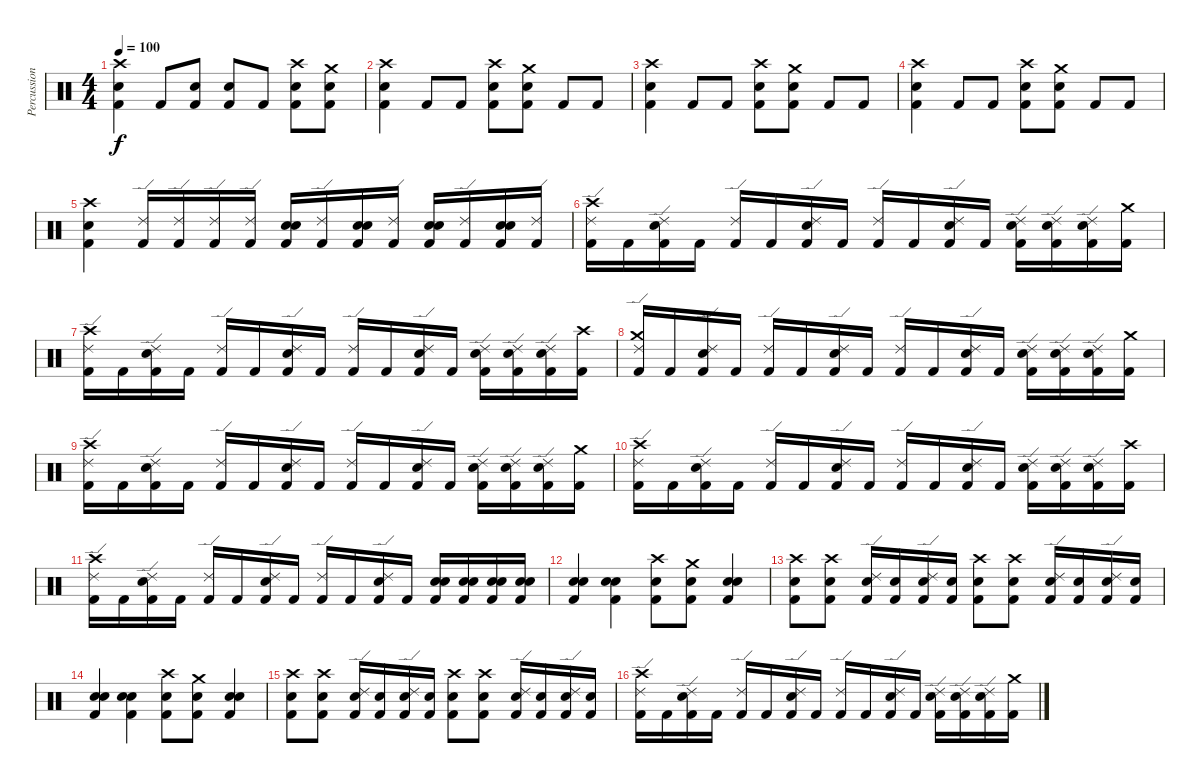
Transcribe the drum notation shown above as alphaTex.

\track ("Percussion" "Percussion") {instrument percussion}
\staff {score}
\articulation defaults
\ts (4 4)
\tempo 100
\clef neutral
\ks c
("Crash high (hit)" "Snare (hit) 2" "Kick (hit) 2").4{dy f} "Kick (hit) 2".8 ("Snare (hit) 2" "Kick (hit) 2").8 ("Snare (hit) 2" "Kick (hit) 2").8 "Kick (hit) 2".8 ("Crash high (hit)" "Snare (hit) 2" "Kick (hit) 2").8 ("Crash medium (hit)" "Snare (hit) 2" "Kick (hit) 2").8 |
("Crash high (hit)" "Snare (hit) 2" "Kick (hit) 2").4 "Kick (hit) 2".8 "Kick (hit) 2".8 ("Crash high (hit)" "Snare (hit) 2" "Kick (hit) 2").8 ("Crash medium (hit)" "Snare (hit) 2" "Kick (hit) 2").8 "Kick (hit) 2".8 "Kick (hit) 2".8 |
("Crash high (hit)" "Snare (hit) 2" "Kick (hit) 2").4 "Kick (hit) 2".8 "Kick (hit) 2".8 ("Crash high (hit)" "Snare (hit) 2" "Kick (hit) 2").8 ("Crash medium (hit)" "Snare (hit) 2" "Kick (hit) 2").8 "Kick (hit) 2".8 "Kick (hit) 2".8 |
("Crash high (hit)" "Snare (hit) 2" "Kick (hit) 2").4 "Kick (hit) 2".8 "Kick (hit) 2".8 ("Crash high (hit)" "Snare (hit) 2" "Kick (hit) 2").8 ("Crash medium (hit)" "Snare (hit) 2" "Kick (hit) 2").8 "Kick (hit) 2".8 "Kick (hit) 2".8 |
("Crash high (hit)" "Snare (hit) 2" "Kick (hit) 2").4 ("Ride (edge) 2" "Kick (hit) 2").16 ("Ride (edge) 2" "Kick (hit) 2").16 ("Ride (edge) 2" "Kick (hit) 2").16 ("Ride (edge) 2" "Kick (hit) 2").16 ("Snare (hit) 2" "Snare (hit) 2" "Kick (hit) 2").16 ("Ride (edge) 2" "Kick (hit) 2").16 ("Snare (hit) 2" "Snare (hit) 2" "Kick (hit) 2").16 ("Ride (edge) 2" "Kick (hit) 2").16 ("Snare (hit) 2" "Snare (hit) 2" "Kick (hit) 2").16 ("Ride (edge) 2" "Kick (hit) 2").16 ("Snare (hit) 2" "Snare (hit) 2" "Kick (hit) 2").16 ("Ride (edge) 2" "Kick (hit) 2").16 |
("Ride (edge) 2" "Crash high (hit)" "Kick (hit) 2").16 "Kick (hit) 2".16 ("Ride (edge) 2" "Snare (hit) 2" "Kick (hit) 2").16 "Kick (hit) 2".16 ("Ride (edge) 2" "Kick (hit) 2").16 "Kick (hit) 2".16 ("Ride (edge) 2" "Snare (hit) 2" "Kick (hit) 2").16 "Kick (hit) 2".16 ("Ride (edge) 2" "Kick (hit) 2").16 "Kick (hit) 2".16 ("Ride (edge) 2" "Snare (hit) 2" "Kick (hit) 2").16 "Kick (hit) 2".16 ("Ride (edge) 2" "Snare (hit) 2" "Kick (hit) 2").16 ("Ride (edge) 2" "Snare (hit) 2" "Kick (hit) 2").16 ("Ride (edge) 2" "Snare (hit) 2" "Kick (hit) 2").16 ("Crash medium (hit)" "Kick (hit) 2").16 |
("Ride (edge) 2" "Crash high (hit)" "Kick (hit) 2").16 "Kick (hit) 2".16 ("Ride (edge) 2" "Snare (hit) 2" "Kick (hit) 2").16 "Kick (hit) 2".16 ("Ride (edge) 2" "Kick (hit) 2").16 "Kick (hit) 2".16 ("Ride (edge) 2" "Snare (hit) 2" "Kick (hit) 2").16 "Kick (hit) 2".16 ("Ride (edge) 2" "Kick (hit) 2").16 "Kick (hit) 2".16 ("Ride (edge) 2" "Snare (hit) 2" "Kick (hit) 2").16 "Kick (hit) 2".16 ("Ride (edge) 2" "Snare (hit) 2" "Kick (hit) 2").16 ("Ride (edge) 2" "Snare (hit) 2" "Kick (hit) 2").16 ("Ride (edge) 2" "Snare (hit) 2" "Kick (hit) 2").16 ("Crash high (hit)" "Kick (hit) 2").16 |
("Ride (edge) 2" "Crash medium (hit)" "Kick (hit) 2").16 "Kick (hit) 2".16 ("Ride (edge) 2" "Snare (hit) 2" "Kick (hit) 2").16 "Kick (hit) 2".16 ("Ride (edge) 2" "Kick (hit) 2").16 "Kick (hit) 2".16 ("Ride (edge) 2" "Snare (hit) 2" "Kick (hit) 2").16 "Kick (hit) 2".16 ("Ride (edge) 2" "Kick (hit) 2").16 "Kick (hit) 2".16 ("Ride (edge) 2" "Snare (hit) 2" "Kick (hit) 2").16 "Kick (hit) 2".16 ("Ride (edge) 2" "Snare (hit) 2" "Kick (hit) 2").16 ("Ride (edge) 2" "Snare (hit) 2" "Kick (hit) 2").16 ("Ride (edge) 2" "Snare (hit) 2" "Kick (hit) 2").16 ("Crash medium (hit)" "Kick (hit) 2").16 |
("Ride (edge) 2" "Crash high (hit)" "Kick (hit) 2").16 "Kick (hit) 2".16 ("Ride (edge) 2" "Snare (hit) 2" "Kick (hit) 2").16 "Kick (hit) 2".16 ("Ride (edge) 2" "Kick (hit) 2").16 "Kick (hit) 2".16 ("Ride (edge) 2" "Snare (hit) 2" "Kick (hit) 2").16 "Kick (hit) 2".16 ("Ride (edge) 2" "Kick (hit) 2").16 "Kick (hit) 2".16 ("Ride (edge) 2" "Snare (hit) 2" "Kick (hit) 2").16 "Kick (hit) 2".16 ("Ride (edge) 2" "Snare (hit) 2" "Kick (hit) 2").16 ("Ride (edge) 2" "Snare (hit) 2" "Kick (hit) 2").16 ("Ride (edge) 2" "Snare (hit) 2" "Kick (hit) 2").16 ("Crash medium (hit)" "Kick (hit) 2").16 |
("Ride (edge) 2" "Crash high (hit)" "Kick (hit) 2").16 "Kick (hit) 2".16 ("Ride (edge) 2" "Snare (hit) 2" "Kick (hit) 2").16 "Kick (hit) 2".16 ("Ride (edge) 2" "Kick (hit) 2").16 "Kick (hit) 2".16 ("Ride (edge) 2" "Snare (hit) 2" "Kick (hit) 2").16 "Kick (hit) 2".16 ("Ride (edge) 2" "Kick (hit) 2").16 "Kick (hit) 2".16 ("Ride (edge) 2" "Snare (hit) 2" "Kick (hit) 2").16 "Kick (hit) 2".16 ("Ride (edge) 2" "Snare (hit) 2" "Kick (hit) 2").16 ("Ride (edge) 2" "Snare (hit) 2" "Kick (hit) 2").16 ("Ride (edge) 2" "Snare (hit) 2" "Kick (hit) 2").16 ("Crash high (hit)" "Kick (hit) 2").16 |
("Ride (edge) 2" "Crash high (hit)" "Kick (hit) 2").16 "Kick (hit) 2".16 ("Ride (edge) 2" "Snare (hit) 2" "Kick (hit) 2").16 "Kick (hit) 2".16 ("Ride (edge) 2" "Kick (hit) 2").16 "Kick (hit) 2".16 ("Ride (edge) 2" "Snare (hit) 2" "Kick (hit) 2").16 "Kick (hit) 2".16 ("Ride (edge) 2" "Kick (hit) 2").16 "Kick (hit) 2".16 ("Ride (edge) 2" "Snare (hit) 2" "Kick (hit) 2").16 "Kick (hit) 2".16 ("Snare (hit) 2" "Snare (hit) 2" "Kick (hit) 2").16 ("Snare (hit) 2" "Snare (hit) 2" "Kick (hit) 2").16 ("Snare (hit) 2" "Snare (hit) 2" "Kick (hit) 2").16 ("Snare (hit) 2" "Snare (hit) 2" "Kick (hit) 2").16 |
("Snare (hit) 2" "Snare (hit) 2" "Kick (hit) 2").4 ("Electric Snare (hit)" "Snare (hit) 2" "Kick (hit) 2").4 ("Snare (hit) 2" "Crash high (hit)" "Kick (hit) 2").8 ("Snare (hit) 2" "Crash medium (hit)" "Kick (hit) 2").8 ("Snare (hit) 2" "Snare (hit) 2" "Kick (hit) 2").4 |
("Snare (hit) 2" "Crash high (hit)" "Kick (hit) 2").8 ("Snare (hit) 2" "Crash high (hit)" "Kick (hit) 2").8 ("Ride (edge) 2" "Snare (hit) 2" "Kick (hit) 2").16 ("Snare (hit) 2" "Kick (hit) 2").16 ("Ride (edge) 2" "Snare (hit) 2" "Kick (hit) 2").16 ("Snare (hit) 2" "Kick (hit) 2").16 ("Snare (hit) 2" "Crash high (hit)" "Kick (hit) 2").8 ("Snare (hit) 2" "Crash high (hit)" "Kick (hit) 2").8 ("Ride (edge) 2" "Snare (hit) 2" "Kick (hit) 2").16 ("Snare (hit) 2" "Kick (hit) 2").16 ("Ride (edge) 2" "Snare (hit) 2" "Kick (hit) 2").16 ("Snare (hit) 2" "Kick (hit) 2").16 |
("Snare (hit) 2" "Snare (hit) 2" "Kick (hit) 2").4 ("Electric Snare (hit)" "Snare (hit) 2" "Kick (hit) 2").4 ("Snare (hit) 2" "Crash high (hit)" "Kick (hit) 2").8 ("Snare (hit) 2" "Crash medium (hit)" "Kick (hit) 2").8 ("Snare (hit) 2" "Snare (hit) 2" "Kick (hit) 2").4 |
("Snare (hit) 2" "Crash high (hit)" "Kick (hit) 2").8 ("Snare (hit) 2" "Crash high (hit)" "Kick (hit) 2").8 ("Ride (edge) 2" "Snare (hit) 2" "Kick (hit) 2").16 ("Snare (hit) 2" "Kick (hit) 2").16 ("Ride (edge) 2" "Snare (hit) 2" "Kick (hit) 2").16 ("Snare (hit) 2" "Kick (hit) 2").16 ("Snare (hit) 2" "Crash high (hit)" "Kick (hit) 2").8 ("Snare (hit) 2" "Crash high (hit)" "Kick (hit) 2").8 ("Ride (edge) 2" "Snare (hit) 2" "Kick (hit) 2").16 ("Snare (hit) 2" "Kick (hit) 2").16 ("Ride (edge) 2" "Snare (hit) 2" "Kick (hit) 2").16 ("Snare (hit) 2" "Kick (hit) 2").16 |
("Ride (edge) 2" "Crash high (hit)" "Kick (hit) 2").16 "Kick (hit) 2".16 ("Ride (edge) 2" "Snare (hit) 2" "Kick (hit) 2").16 "Kick (hit) 2".16 ("Ride (edge) 2" "Kick (hit) 2").16 "Kick (hit) 2".16 ("Ride (edge) 2" "Snare (hit) 2" "Kick (hit) 2").16 "Kick (hit) 2".16 ("Ride (edge) 2" "Kick (hit) 2").16 "Kick (hit) 2".16 ("Ride (edge) 2" "Snare (hit) 2" "Kick (hit) 2").16 "Kick (hit) 2".16 ("Ride (edge) 2" "Snare (hit) 2" "Kick (hit) 2").16 ("Ride (edge) 2" "Snare (hit) 2" "Kick (hit) 2").16 ("Ride (edge) 2" "Snare (hit) 2" "Kick (hit) 2").16 ("Crash medium (hit)" "Kick (hit) 2").16
